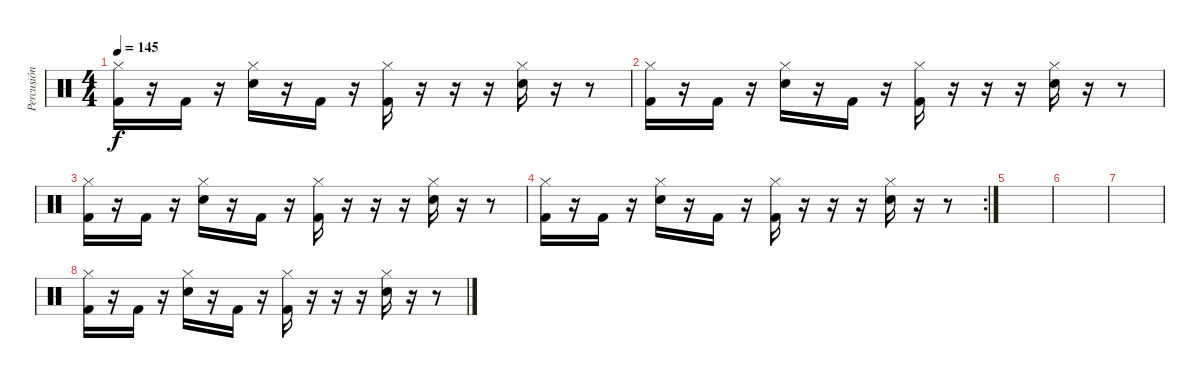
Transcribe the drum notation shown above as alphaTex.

\track ("Percusión" "Percusión") {solo instrument percussion}
\staff {score}
\articulation defaults
\ts (4 4)
\tempo 145
\clef neutral
\ks c
("Kick (hit) 2" "Hi-Hat (closed)").16{dy f} r.16 "Kick (hit) 2".16 r.16 ("Electric Snare (hit)" "Hi-Hat (closed)").16 r.16 "Kick (hit) 2".16 r.16 ("Kick (hit) 2" "Hi-Hat (closed)").16 r.16 r.16 r.16 ("Electric Snare (hit)" "Hi-Hat (closed)").16 r.16 r.8 |
("Kick (hit) 2" "Hi-Hat (closed)").16 r.16 "Kick (hit) 2".16 r.16 ("Electric Snare (hit)" "Hi-Hat (closed)").16 r.16 "Kick (hit) 2".16 r.16 ("Kick (hit) 2" "Hi-Hat (closed)").16 r.16 r.16 r.16 ("Electric Snare (hit)" "Hi-Hat (closed)").16 r.16 r.8 |
("Kick (hit) 2" "Hi-Hat (closed)").16 r.16 "Kick (hit) 2".16 r.16 ("Electric Snare (hit)" "Hi-Hat (closed)").16 r.16 "Kick (hit) 2".16 r.16 ("Kick (hit) 2" "Hi-Hat (closed)").16 r.16 r.16 r.16 ("Electric Snare (hit)" "Hi-Hat (closed)").16 r.16 r.8 |
\rc 2
("Kick (hit) 2" "Hi-Hat (closed)").16 r.16 "Kick (hit) 2".16 r.16 ("Electric Snare (hit)" "Hi-Hat (closed)").16 r.16 "Kick (hit) 2".16 r.16 ("Kick (hit) 2" "Hi-Hat (closed)").16 r.16 r.16 r.16 ("Electric Snare (hit)" "Hi-Hat (closed)").16 r.16 r.8 |
|
|
|
("Kick (hit) 2" "Hi-Hat (closed)").16 r.16 "Kick (hit) 2".16 r.16 ("Electric Snare (hit)" "Hi-Hat (closed)").16 r.16 "Kick (hit) 2".16 r.16 ("Kick (hit) 2" "Hi-Hat (closed)").16 r.16 r.16 r.16 ("Electric Snare (hit)" "Hi-Hat (closed)").16 r.16 r.8
